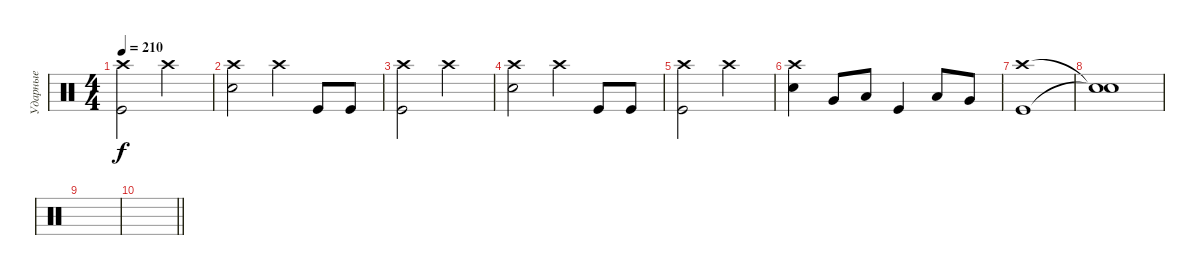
\track ("Ударные" "Ударные") {instrument percussion}
\staff {score}
\articulation defaults
\ts (4 4)
\tempo 210
\clef neutral
\ks c
("Crash high (hit)" "Kick (hit)").2{dy f} "Crash high (hit)".2 |
("Crash high (hit)" "Electric Snare (hit)").2 "Crash high (hit)".4 "Kick (hit)".8 "Kick (hit)".8 |
("Crash high (hit)" "Kick (hit)").2 "Crash high (hit)".2 |
("Crash high (hit)" "Electric Snare (hit)").2 "Crash high (hit)".4 "Kick (hit)".8 "Kick (hit)".8 |
("Crash high (hit)" "Kick (hit)").2 "Crash high (hit)".2 |
("Crash high (hit)" "Electric Snare (hit)").4 "Very Low Tom (hit)".8 "Low Floor Tom (hit)".8 "Kick (hit)".4 "Low Tom (hit)".8 "Very Low Tom (hit)".8 |
("Crash high (hit)" "Kick (hit)").1 |
("Snare (hit)"{t} "Snare (hit)"{t}).1 |
|
\barLineRight lightlight
